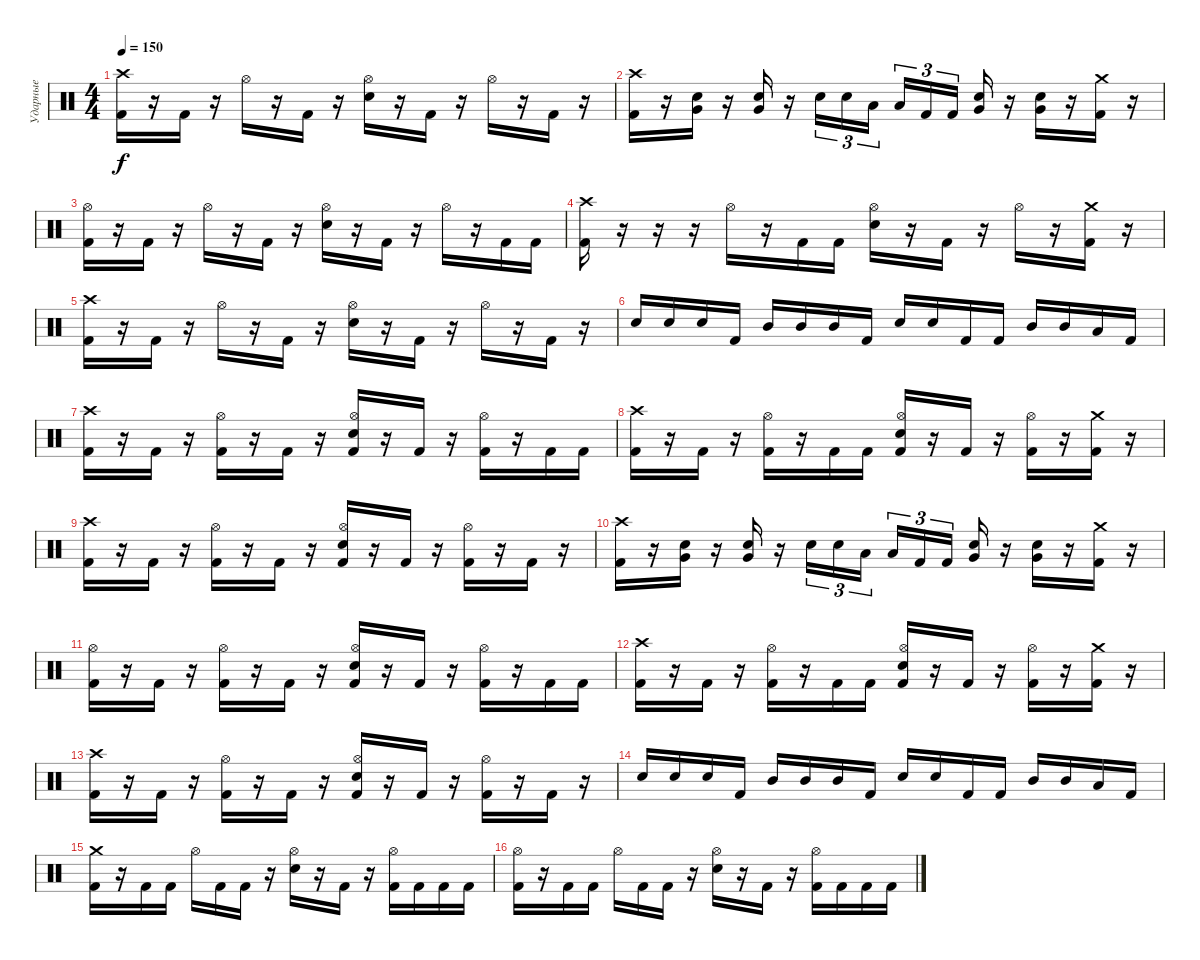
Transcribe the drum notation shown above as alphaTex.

\track ("Ударные" "Ударные") {instrument percussion}
\staff {score}
\articulation defaults
\ts (4 4)
\tempo 150
\clef neutral
\ks c
("Kick (hit) 2" "Crash high (hit)").16{dy f} r.16 "Kick (hit) 2".16 r.16 "Hi-Hat (open)".16 r.16 "Kick (hit) 2".16 r.16 ("Electric Snare (hit)" "Hi-Hat (open)").16 r.16 "Kick (hit) 2".16 r.16 "Hi-Hat (open)".16 r.16 "Kick (hit) 2".16 r.16 |
("Kick (hit) 2" "Crash high (hit)").16 r.16 ("Electric Snare (hit)" "Very Low Tom (hit)").16 r.16 ("Electric Snare (hit)" "Very Low Tom (hit)").16 r.16 "Electric Snare (hit)".16{tu (3 2)} "Electric Snare (hit)".16{tu (3 2)} "Low Tom (hit)".16{tu (3 2)} "Low Tom (hit)".16{tu (3 2)} "Kick (hit) 2".16{tu (3 2)} "Kick (hit) 2".16{tu (3 2)} ("Electric Snare (hit)" "Very Low Tom (hit)").16 r.16 ("Electric Snare (hit)" "Very Low Tom (hit)").16 r.16 ("Kick (hit) 2" "Crash medium (hit)").16 r.16 |
("Kick (hit) 2" "Hi-Hat (open)").16 r.16 "Kick (hit) 2".16 r.16 "Hi-Hat (open)".16 r.16 "Kick (hit) 2".16 r.16 ("Electric Snare (hit)" "Hi-Hat (open)").16 r.16 "Kick (hit) 2".16 r.16 "Hi-Hat (open)".16 r.16 "Kick (hit) 2".16 "Kick (hit) 2".16 |
("Kick (hit) 2" "Crash high (hit)").16 r.16 r.16 r.16 "Hi-Hat (open)".16 r.16 "Kick (hit) 2".16 "Kick (hit) 2".16 ("Electric Snare (hit)" "Hi-Hat (open)").16 r.16 "Kick (hit) 2".16 r.16 "Hi-Hat (open)".16 r.16 ("Kick (hit) 2" "Crash medium (hit)").16 r.16 |
("Kick (hit) 2" "Crash high (hit)").16 r.16 "Kick (hit) 2".16 r.16 "Hi-Hat (open)".16 r.16 "Kick (hit) 2".16 r.16 ("Electric Snare (hit)" "Hi-Hat (open)").16 r.16 "Kick (hit) 2".16 r.16 "Hi-Hat (open)".16 r.16 "Kick (hit) 2".16 r.16 |
"Electric Snare (hit)".16 "Electric Snare (hit)".16 "Electric Snare (hit)".16 "Kick (hit) 2".16 "Mid Tom (hit)".16 "Mid Tom (hit)".16 "Mid Tom (hit)".16 "Kick (hit) 2".16 "Electric Snare (hit)".16 "Electric Snare (hit)".16 "Kick (hit) 2".16 "Kick (hit) 2".16 "Mid Tom (hit)".16 "Mid Tom (hit)".16 "Low Tom (hit)".16 "Kick (hit) 2".16 |
("Kick (hit) 2" "Crash high (hit)").16 r.16 "Kick (hit) 2".16 r.16 ("Kick (hit) 2" "Hi-Hat (open)").16 r.16 "Kick (hit) 2".16 r.16 ("Kick (hit) 2" "Electric Snare (hit)" "Hi-Hat (open)").16 r.16 "Kick (hit) 2".16 r.16 ("Kick (hit) 2" "Hi-Hat (open)").16 r.16 "Kick (hit) 2".16 "Kick (hit) 2".16 |
("Kick (hit) 2" "Crash high (hit)").16 r.16 "Kick (hit) 2".16 r.16 ("Kick (hit) 2" "Hi-Hat (open)").16 r.16 "Kick (hit) 2".16 "Kick (hit) 2".16 ("Kick (hit) 2" "Electric Snare (hit)" "Hi-Hat (open)").16 r.16 "Kick (hit) 2".16 r.16 ("Kick (hit) 2" "Hi-Hat (open)").16 r.16 ("Kick (hit) 2" "Crash medium (hit)").16 r.16 |
("Kick (hit) 2" "Crash high (hit)").16 r.16 "Kick (hit) 2".16 r.16 ("Kick (hit) 2" "Hi-Hat (open)").16 r.16 "Kick (hit) 2".16 r.16 ("Kick (hit) 2" "Electric Snare (hit)" "Hi-Hat (open)").16 r.16 "Kick (hit) 2".16 r.16 ("Kick (hit) 2" "Hi-Hat (open)").16 r.16 "Kick (hit) 2".16 r.16 |
("Kick (hit) 2" "Crash high (hit)").16 r.16 ("Electric Snare (hit)" "Very Low Tom (hit)").16 r.16 ("Electric Snare (hit)" "Very Low Tom (hit)").16 r.16 "Electric Snare (hit)".16{tu (3 2)} "Electric Snare (hit)".16{tu (3 2)} "Low Tom (hit)".16{tu (3 2)} "Low Tom (hit)".16{tu (3 2)} "Kick (hit) 2".16{tu (3 2)} "Kick (hit) 2".16{tu (3 2)} ("Electric Snare (hit)" "Very Low Tom (hit)").16 r.16 ("Electric Snare (hit)" "Very Low Tom (hit)").16 r.16 ("Kick (hit) 2" "Crash medium (hit)").16 r.16 |
("Kick (hit) 2" "Hi-Hat (open)").16 r.16 "Kick (hit) 2".16 r.16 ("Kick (hit) 2" "Hi-Hat (open)").16 r.16 "Kick (hit) 2".16 r.16 ("Kick (hit) 2" "Electric Snare (hit)" "Hi-Hat (open)").16 r.16 "Kick (hit) 2".16 r.16 ("Kick (hit) 2" "Hi-Hat (open)").16 r.16 "Kick (hit) 2".16 "Kick (hit) 2".16 |
("Kick (hit) 2" "Crash high (hit)").16 r.16 "Kick (hit) 2".16 r.16 ("Kick (hit) 2" "Hi-Hat (open)").16 r.16 "Kick (hit) 2".16 "Kick (hit) 2".16 ("Kick (hit) 2" "Electric Snare (hit)" "Hi-Hat (open)").16 r.16 "Kick (hit) 2".16 r.16 ("Kick (hit) 2" "Hi-Hat (open)").16 r.16 ("Kick (hit) 2" "Crash medium (hit)").16 r.16 |
("Kick (hit) 2" "Crash high (hit)").16 r.16 "Kick (hit) 2".16 r.16 ("Kick (hit) 2" "Hi-Hat (open)").16 r.16 "Kick (hit) 2".16 r.16 ("Kick (hit) 2" "Electric Snare (hit)" "Hi-Hat (open)").16 r.16 "Kick (hit) 2".16 r.16 ("Kick (hit) 2" "Hi-Hat (open)").16 r.16 "Kick (hit) 2".16 r.16 |
"Electric Snare (hit)".16 "Electric Snare (hit)".16 "Electric Snare (hit)".16 "Kick (hit) 2".16 "Mid Tom (hit)".16 "Mid Tom (hit)".16 "Mid Tom (hit)".16 "Kick (hit) 2".16 "Electric Snare (hit)".16 "Electric Snare (hit)".16 "Kick (hit) 2".16 "Kick (hit) 2".16 "Mid Tom (hit)".16 "Mid Tom (hit)".16 "Low Tom (hit)".16 "Kick (hit) 2".16 |
("Kick (hit) 2" "Crash medium (hit)").16 r.16 "Kick (hit) 2".16 "Kick (hit) 2".16 "Hi-Hat (open)".16 "Kick (hit) 2".16 "Kick (hit) 2".16 r.16 ("Electric Snare (hit)" "Hi-Hat (open)").16 r.16 "Kick (hit) 2".16 r.16 ("Kick (hit) 2" "Hi-Hat (open)").16 "Kick (hit) 2".16 "Kick (hit) 2".16 "Kick (hit) 2".16 |
("Kick (hit) 2" "Hi-Hat (open)").16 r.16 "Kick (hit) 2".16 "Kick (hit) 2".16 "Hi-Hat (open)".16 "Kick (hit) 2".16 "Kick (hit) 2".16 r.16 ("Electric Snare (hit)" "Hi-Hat (open)").16 r.16 "Kick (hit) 2".16 r.16 ("Kick (hit) 2" "Hi-Hat (open)").16 "Kick (hit) 2".16 "Kick (hit) 2".16 "Kick (hit) 2".16
